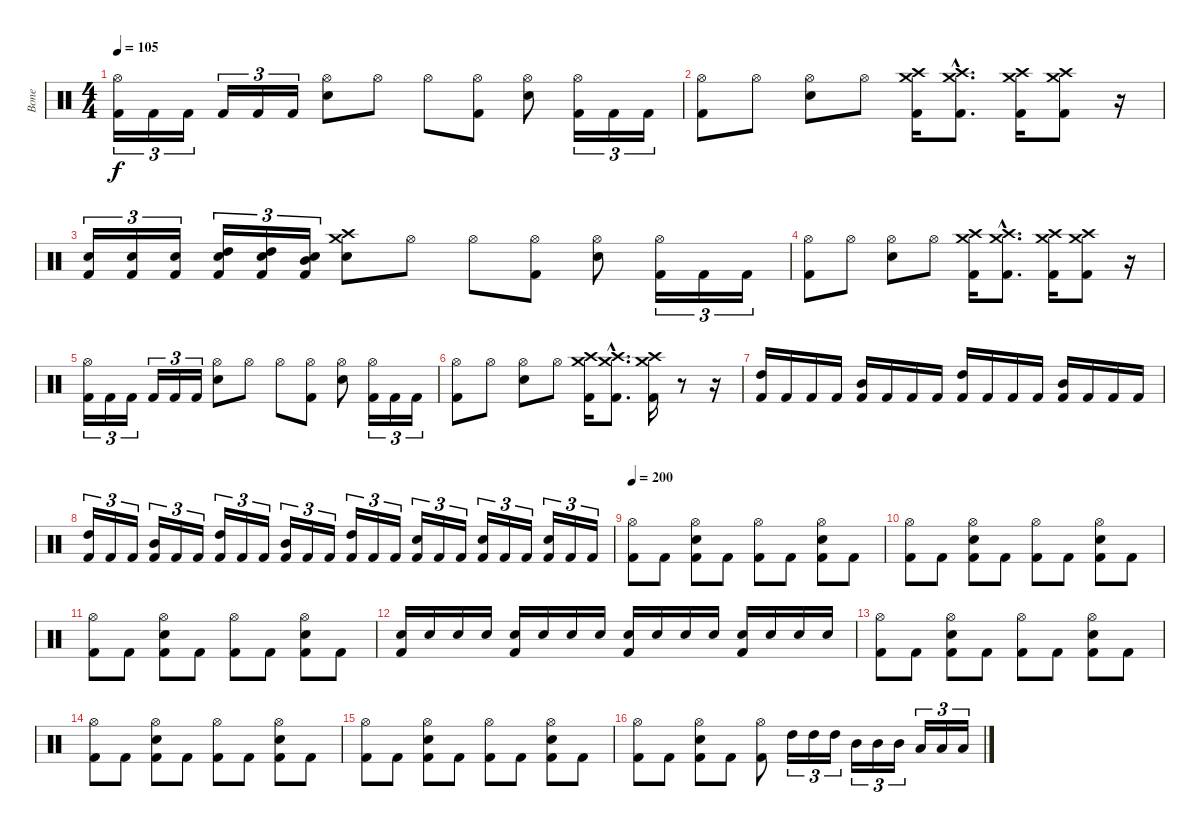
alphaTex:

\track ("Bone " "Bone ") {instrument percussion}
\staff {score}
\articulation defaults
\ts (4 4)
\tempo 105
\clef neutral
\ks c
("Hi-Hat (open)" "Kick (hit) 2").16{tu (3 2) dy f} "Kick (hit) 2".16{tu (3 2)} "Kick (hit) 2".16{tu (3 2)} "Kick (hit) 2".16{tu (3 2)} "Kick (hit) 2".16{tu (3 2)} "Kick (hit) 2".16{tu (3 2)} ("Hi-Hat (open)" "Electric Snare (hit)").8 "Hi-Hat (open)".8 "Hi-Hat (open)".8 ("Hi-Hat (open)" "Kick (hit) 2").8 ("Hi-Hat (open)" "Electric Snare (hit)").8 ("Hi-Hat (open)" "Kick (hit) 2").16{tu (3 2)} "Kick (hit) 2".16{tu (3 2)} "Kick (hit) 2".16{tu (3 2)} |
("Hi-Hat (open)" "Kick (hit) 2").8 "Hi-Hat (open)".8 ("Hi-Hat (open)" "Electric Snare (hit)").8 "Hi-Hat (open)".8 ("Crash medium (hit)" "Crash high (hit)" "Kick (hit) 2").16 ("Crash medium (hit)"{hac} "Crash high (hit)"{hac} "Kick (hit) 2"{hac}).8{d} ("Crash medium (hit)" "Crash high (hit)" "Kick (hit) 2").16 ("Crash medium (hit)" "Crash high (hit)" "Kick (hit) 2").8 r.16 |
("Electric Snare (hit)" "Kick (hit) 2").16{tu (3 2)} ("Electric Snare (hit)" "Kick (hit) 2").16{tu (3 2)} ("Electric Snare (hit)" "Kick (hit) 2").16{tu (3 2)} ("Electric Snare (hit)" "High Tom (hit)" "Kick (hit) 2").16{tu (3 2)} ("Electric Snare (hit)" "High Tom (hit)" "Kick (hit) 2").16{tu (3 2)} ("Electric Snare (hit)" "Mid Tom (hit)" "Kick (hit) 2").16{tu (3 2)} ("Crash medium (hit)" "Crash high (hit)" "Electric Snare (hit)").8 "Hi-Hat (open)".8 "Hi-Hat (open)".8 ("Hi-Hat (open)" "Kick (hit) 2").8 ("Hi-Hat (open)" "Electric Snare (hit)").8 ("Hi-Hat (open)" "Kick (hit) 2").16{tu (3 2)} "Kick (hit) 2".16{tu (3 2)} "Kick (hit) 2".16{tu (3 2)} |
("Hi-Hat (open)" "Kick (hit) 2").8 "Hi-Hat (open)".8 ("Hi-Hat (open)" "Electric Snare (hit)").8 "Hi-Hat (open)".8 ("Crash medium (hit)" "Crash high (hit)" "Kick (hit) 2").16 ("Crash medium (hit)"{hac} "Crash high (hit)"{hac} "Kick (hit) 2"{hac}).8{d} ("Crash medium (hit)" "Crash high (hit)" "Kick (hit) 2").16 ("Crash medium (hit)" "Crash high (hit)" "Kick (hit) 2").8 r.16 |
("Hi-Hat (open)" "Kick (hit) 2").16{tu (3 2)} "Kick (hit) 2".16{tu (3 2)} "Kick (hit) 2".16{tu (3 2)} "Kick (hit) 2".16{tu (3 2)} "Kick (hit) 2".16{tu (3 2)} "Kick (hit) 2".16{tu (3 2)} ("Hi-Hat (open)" "Electric Snare (hit)").8 "Hi-Hat (open)".8 "Hi-Hat (open)".8 ("Hi-Hat (open)" "Kick (hit) 2").8 ("Hi-Hat (open)" "Electric Snare (hit)").8 ("Hi-Hat (open)" "Kick (hit) 2").16{tu (3 2)} "Kick (hit) 2".16{tu (3 2)} "Kick (hit) 2".16{tu (3 2)} |
("Hi-Hat (open)" "Kick (hit) 2").8 "Hi-Hat (open)".8 ("Hi-Hat (open)" "Electric Snare (hit)").8 "Hi-Hat (open)".8 ("Crash medium (hit)" "Crash high (hit)" "Kick (hit) 2").16 ("Crash medium (hit)"{hac} "Crash high (hit)"{hac} "Kick (hit) 2"{hac}).8{d} ("Crash medium (hit)" "Crash high (hit)" "Kick (hit) 2").16 r.8 r.16 |
("High Tom (hit)" "Kick (hit) 2").16 "Kick (hit) 2".16 "Kick (hit) 2".16 "Kick (hit) 2".16 ("Mid Tom (hit)" "Kick (hit) 2").16 "Kick (hit) 2".16 "Kick (hit) 2".16 "Kick (hit) 2".16 ("High Tom (hit)" "Kick (hit) 2").16 "Kick (hit) 2".16 "Kick (hit) 2".16 "Kick (hit) 2".16 ("Mid Tom (hit)" "Kick (hit) 2").16 "Kick (hit) 2".16 "Kick (hit) 2".16 "Kick (hit) 2".16 |
("High Tom (hit)" "Kick (hit) 2").16{tu (3 2)} "Kick (hit) 2".16{tu (3 2)} "Kick (hit) 2".16{tu (3 2)} ("Mid Tom (hit)" "Kick (hit) 2").16{tu (3 2)} "Kick (hit) 2".16{tu (3 2)} "Kick (hit) 2".16{tu (3 2)} ("High Tom (hit)" "Kick (hit) 2").16{tu (3 2)} "Kick (hit) 2".16{tu (3 2)} "Kick (hit) 2".16{tu (3 2)} ("Mid Tom (hit)" "Kick (hit) 2").16{tu (3 2)} "Kick (hit) 2".16{tu (3 2)} "Kick (hit) 2".16{tu (3 2)} ("High Tom (hit)" "Kick (hit) 2").16{tu (3 2)} "Kick (hit) 2".16{tu (3 2)} "Kick (hit) 2".16{tu (3 2)} ("Electric Snare (hit)" "Kick (hit) 2").16{tu (3 2)} "Kick (hit) 2".16{tu (3 2)} "Kick (hit) 2".16{tu (3 2)} ("Electric Snare (hit)" "Kick (hit) 2").16{tu (3 2)} "Kick (hit) 2".16{tu (3 2)} "Kick (hit) 2".16{tu (3 2)} ("Electric Snare (hit)" "Kick (hit) 2").16{tu (3 2)} "Kick (hit) 2".16{tu (3 2)} "Kick (hit) 2".16{tu (3 2)} |
\tempo 200
("Hi-Hat (open)" "Kick (hit) 2").8 "Kick (hit) 2".8 ("Hi-Hat (open)" "Electric Snare (hit)" "Kick (hit) 2").8 "Kick (hit) 2".8 ("Hi-Hat (open)" "Kick (hit) 2").8 "Kick (hit) 2".8 ("Hi-Hat (open)" "Electric Snare (hit)" "Kick (hit) 2").8 "Kick (hit) 2".8 |
("Hi-Hat (open)" "Kick (hit) 2").8 "Kick (hit) 2".8 ("Hi-Hat (open)" "Electric Snare (hit)" "Kick (hit) 2").8 "Kick (hit) 2".8 ("Hi-Hat (open)" "Kick (hit) 2").8 "Kick (hit) 2".8 ("Hi-Hat (open)" "Electric Snare (hit)" "Kick (hit) 2").8 "Kick (hit) 2".8 |
("Hi-Hat (open)" "Kick (hit) 2").8 "Kick (hit) 2".8 ("Hi-Hat (open)" "Electric Snare (hit)" "Kick (hit) 2").8 "Kick (hit) 2".8 ("Hi-Hat (open)" "Kick (hit) 2").8 "Kick (hit) 2".8 ("Hi-Hat (open)" "Electric Snare (hit)" "Kick (hit) 2").8 "Kick (hit) 2".8 |
("Electric Snare (hit)" "Kick (hit) 2").16 "Electric Snare (hit)".16 "Electric Snare (hit)".16 "Electric Snare (hit)".16 ("Electric Snare (hit)" "Kick (hit) 2").16 "Electric Snare (hit)".16 "Electric Snare (hit)".16 "Electric Snare (hit)".16 ("Electric Snare (hit)" "Kick (hit) 2").16 "Electric Snare (hit)".16 "Electric Snare (hit)".16 "Electric Snare (hit)".16 ("Electric Snare (hit)" "Kick (hit) 2").16 "Electric Snare (hit)".16 "Electric Snare (hit)".16 "Electric Snare (hit)".16 |
("Hi-Hat (open)" "Kick (hit) 2").8 "Kick (hit) 2".8 ("Hi-Hat (open)" "Electric Snare (hit)" "Kick (hit) 2").8 "Kick (hit) 2".8 ("Hi-Hat (open)" "Kick (hit) 2").8 "Kick (hit) 2".8 ("Hi-Hat (open)" "Electric Snare (hit)" "Kick (hit) 2").8 "Kick (hit) 2".8 |
("Hi-Hat (open)" "Kick (hit) 2").8 "Kick (hit) 2".8 ("Hi-Hat (open)" "Electric Snare (hit)" "Kick (hit) 2").8 "Kick (hit) 2".8 ("Hi-Hat (open)" "Kick (hit) 2").8 "Kick (hit) 2".8 ("Hi-Hat (open)" "Electric Snare (hit)" "Kick (hit) 2").8 "Kick (hit) 2".8 |
("Hi-Hat (open)" "Kick (hit) 2").8 "Kick (hit) 2".8 ("Hi-Hat (open)" "Electric Snare (hit)" "Kick (hit) 2").8 "Kick (hit) 2".8 ("Hi-Hat (open)" "Kick (hit) 2").8 "Kick (hit) 2".8 ("Hi-Hat (open)" "Electric Snare (hit)" "Kick (hit) 2").8 "Kick (hit) 2".8 |
("Hi-Hat (open)" "Kick (hit) 2").8 "Kick (hit) 2".8 ("Hi-Hat (open)" "Electric Snare (hit)" "Kick (hit) 2").8 "Kick (hit) 2".8 ("Hi-Hat (open)" "Kick (hit) 2").8 "High Tom (hit)".16{tu (3 2)} "High Tom (hit)".16{tu (3 2)} "High Tom (hit)".16{tu (3 2)} "Mid Tom (hit)".16{tu (3 2)} "Mid Tom (hit)".16{tu (3 2)} "Mid Tom (hit)".16{tu (3 2)} "Low Tom (hit)".16{tu (3 2)} "Low Tom (hit)".16{tu (3 2)} "Low Tom (hit)".16{tu (3 2)}
